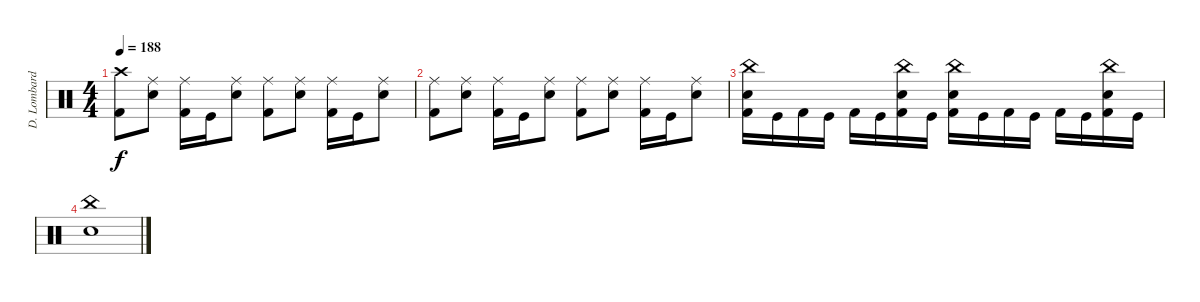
\track ("D. Lombardo" "D. Lombard") {instrument percussion}
\staff {score}
\articulation defaults
\ts (4 4)
\tempo 188
\clef neutral
\ks c
("Crash high (hit)" "Kick (hit) 2").8{dy f} ("Ride (middle)" "Electric Snare (hit)").8 ("Ride (middle)" "Kick (hit) 2").16 "Kick (hit)".16 ("Ride (middle)" "Electric Snare (hit)").8 ("Ride (middle)" "Kick (hit) 2").8 ("Ride (middle)" "Electric Snare (hit)").8 ("Ride (middle)" "Kick (hit) 2").16 "Kick (hit)".16 ("Ride (middle)" "Electric Snare (hit)").8 |
("Ride (middle)" "Kick (hit) 2").8 ("Ride (middle)" "Electric Snare (hit)").8 ("Ride (middle)" "Kick (hit) 2").16 "Kick (hit)".16 ("Ride (middle)" "Electric Snare (hit)").8 ("Ride (middle)" "Kick (hit) 2").8 ("Ride (middle)" "Electric Snare (hit)").8 ("Ride (middle)" "Kick (hit) 2").16 "Kick (hit)".16 ("Ride (middle)" "Electric Snare (hit)").8 |
("China (hit)" "Electric Snare (hit)" "Kick (hit) 2").16 "Kick (hit)".16 "Kick (hit) 2".16 "Kick (hit)".16 "Kick (hit) 2".16 "Kick (hit)".16 ("China (hit)" "Electric Snare (hit)" "Kick (hit) 2").16 "Kick (hit)".16 ("China (hit)" "Electric Snare (hit)" "Kick (hit) 2").16 "Kick (hit)".16 "Kick (hit) 2".16 "Kick (hit)".16 "Kick (hit) 2".16 "Kick (hit)".16 ("China (hit)" "Electric Snare (hit)" "Kick (hit) 2").16 "Kick (hit)".16 |
("China (hit)" "Electric Snare (hit)").1
